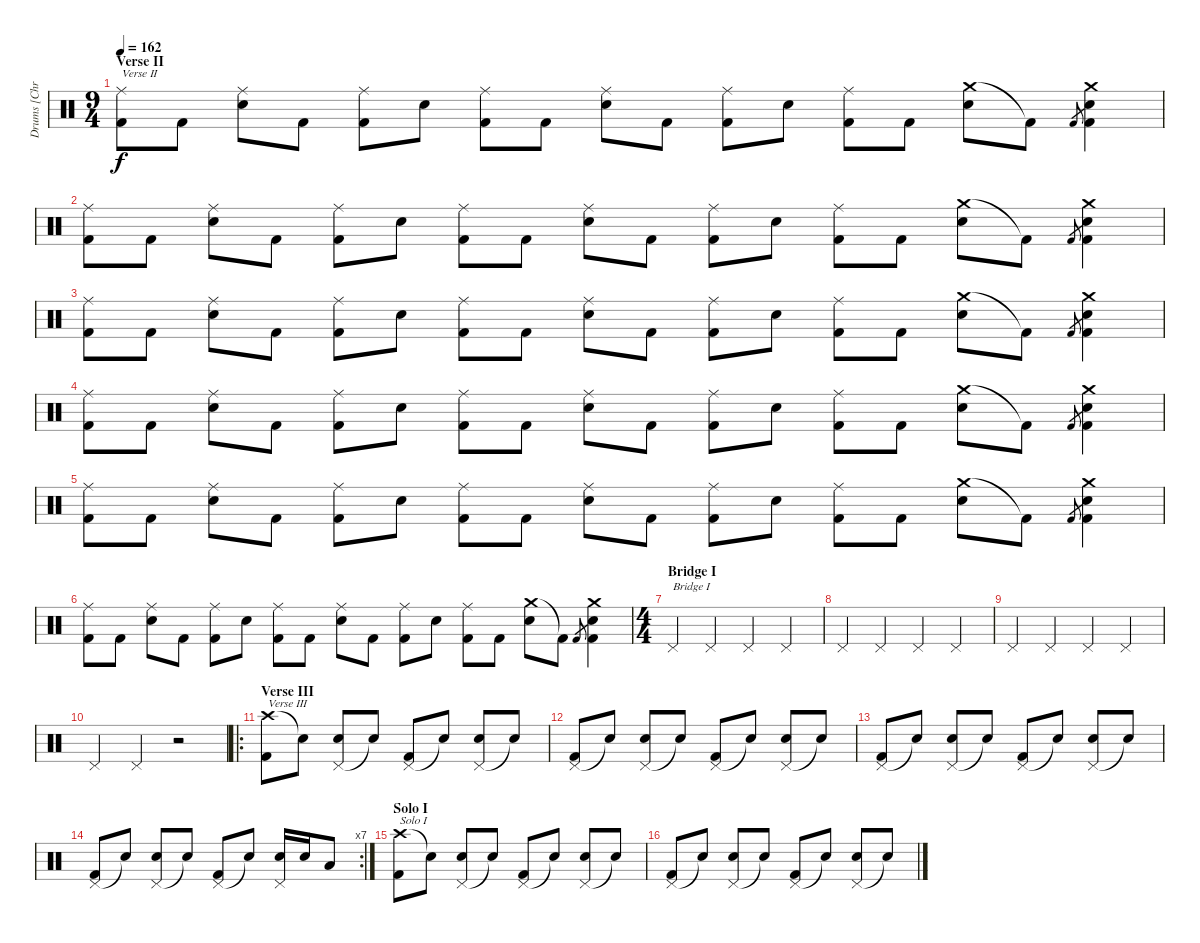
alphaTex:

\track ("Drums [Chris Maitland]" "Drums [Chr") {instrument percussion}
\staff {score}
\articulation defaults
\ts (9 4)
\section ("" "Verse II")
\tempo 162
\clef neutral
\ks c
("Ride (middle)" "Kick (hit) 2").8{txt "Verse II" dy f} "Kick (hit) 2".8 ("Ride (middle)" "Electric Snare (hit)").8 "Kick (hit) 2".8 ("Ride (middle)" "Kick (hit) 2").8 "Electric Snare (hit)".8 ("Ride (middle)" "Kick (hit) 2").8 "Kick (hit) 2".8 ("Ride (middle)" "Electric Snare (hit)").8 "Kick (hit) 2".8 ("Ride (middle)" "Kick (hit) 2").8 "Electric Snare (hit)".8 ("Ride (middle)" "Kick (hit) 2").8 "Kick (hit) 2".8 ("Crash medium (hit)" "Electric Snare (hit)").8 "Kick (hit) 2"{t}.8 "Kick (hit) 2".8{gr} ("Crash medium (hit)" "Electric Snare (hit)" "Kick (hit) 2").4 |
("Ride (middle)" "Kick (hit) 2").8 "Kick (hit) 2".8 ("Ride (middle)" "Electric Snare (hit)").8 "Kick (hit) 2".8 ("Ride (middle)" "Kick (hit) 2").8 "Electric Snare (hit)".8 ("Ride (middle)" "Kick (hit) 2").8 "Kick (hit) 2".8 ("Ride (middle)" "Electric Snare (hit)").8 "Kick (hit) 2".8 ("Ride (middle)" "Kick (hit) 2").8 "Electric Snare (hit)".8 ("Ride (middle)" "Kick (hit) 2").8 "Kick (hit) 2".8 ("Crash medium (hit)" "Electric Snare (hit)").8 "Kick (hit) 2"{t}.8 "Kick (hit) 2".8{gr} ("Crash medium (hit)" "Electric Snare (hit)" "Kick (hit) 2").4 |
("Ride (middle)" "Kick (hit) 2").8 "Kick (hit) 2".8 ("Ride (middle)" "Electric Snare (hit)").8 "Kick (hit) 2".8 ("Ride (middle)" "Kick (hit) 2").8 "Electric Snare (hit)".8 ("Ride (middle)" "Kick (hit) 2").8 "Kick (hit) 2".8 ("Ride (middle)" "Electric Snare (hit)").8 "Kick (hit) 2".8 ("Ride (middle)" "Kick (hit) 2").8 "Electric Snare (hit)".8 ("Ride (middle)" "Kick (hit) 2").8 "Kick (hit) 2".8 ("Crash medium (hit)" "Electric Snare (hit)").8 "Kick (hit) 2"{t}.8 "Kick (hit) 2".8{gr} ("Crash medium (hit)" "Electric Snare (hit)" "Kick (hit) 2").4 |
("Ride (middle)" "Kick (hit) 2").8 "Kick (hit) 2".8 ("Ride (middle)" "Electric Snare (hit)").8 "Kick (hit) 2".8 ("Ride (middle)" "Kick (hit) 2").8 "Electric Snare (hit)".8 ("Ride (middle)" "Kick (hit) 2").8 "Kick (hit) 2".8 ("Ride (middle)" "Electric Snare (hit)").8 "Kick (hit) 2".8 ("Ride (middle)" "Kick (hit) 2").8 "Electric Snare (hit)".8 ("Ride (middle)" "Kick (hit) 2").8 "Kick (hit) 2".8 ("Crash medium (hit)" "Electric Snare (hit)").8 "Kick (hit) 2"{t}.8 "Kick (hit) 2".8{gr} ("Crash medium (hit)" "Electric Snare (hit)" "Kick (hit) 2").4 |
("Ride (middle)" "Kick (hit) 2").8 "Kick (hit) 2".8 ("Ride (middle)" "Electric Snare (hit)").8 "Kick (hit) 2".8 ("Ride (middle)" "Kick (hit) 2").8 "Electric Snare (hit)".8 ("Ride (middle)" "Kick (hit) 2").8 "Kick (hit) 2".8 ("Ride (middle)" "Electric Snare (hit)").8 "Kick (hit) 2".8 ("Ride (middle)" "Kick (hit) 2").8 "Electric Snare (hit)".8 ("Ride (middle)" "Kick (hit) 2").8 "Kick (hit) 2".8 ("Crash medium (hit)" "Electric Snare (hit)").8 "Kick (hit) 2"{t}.8 "Kick (hit) 2".8{gr} ("Crash medium (hit)" "Electric Snare (hit)" "Kick (hit) 2").4 |
("Ride (middle)" "Kick (hit) 2").8 "Kick (hit) 2".8 ("Ride (middle)" "Electric Snare (hit)").8 "Kick (hit) 2".8 ("Ride (middle)" "Kick (hit) 2").8 "Electric Snare (hit)".8 ("Ride (middle)" "Kick (hit) 2").8 "Kick (hit) 2".8 ("Ride (middle)" "Electric Snare (hit)").8 "Kick (hit) 2".8 ("Ride (middle)" "Kick (hit) 2").8 "Electric Snare (hit)".8 ("Ride (middle)" "Kick (hit) 2").8 "Kick (hit) 2".8 ("Crash medium (hit)" "Electric Snare (hit)").8 "Kick (hit) 2"{t}.8 "Kick (hit) 2".8{gr} ("Crash medium (hit)" "Electric Snare (hit)" "Kick (hit) 2").4 |
\ts (4 4)
\section ("" "Bridge I")
"Pedal Hi-Hat (hit)".4{txt "Bridge I"} "Pedal Hi-Hat (hit)".4 "Pedal Hi-Hat (hit)".4 "Pedal Hi-Hat (hit)".4 |
"Pedal Hi-Hat (hit)".4 "Pedal Hi-Hat (hit)".4 "Pedal Hi-Hat (hit)".4 "Pedal Hi-Hat (hit)".4 |
"Pedal Hi-Hat (hit)".4 "Pedal Hi-Hat (hit)".4 "Pedal Hi-Hat (hit)".4 "Pedal Hi-Hat (hit)".4 |
"Pedal Hi-Hat (hit)".4 "Pedal Hi-Hat (hit)".4 r.2 |
\ro
\section ("" "Verse III")
("Crash high (hit)" "Kick (hit) 2").8{txt "Verse III"} "Snare (hit)"{t}.8 ("Pedal Hi-Hat (hit)" "Electric Snare (hit)").8 "Snare (hit)"{t}.8 ("Pedal Hi-Hat (hit)" "Kick (hit) 2").8 "Snare (hit)"{t}.8 ("Pedal Hi-Hat (hit)" "Electric Snare (hit)").8 "Snare (hit)"{t}.8 |
("Pedal Hi-Hat (hit)" "Kick (hit) 2").8 "Snare (hit)"{t}.8 ("Pedal Hi-Hat (hit)" "Electric Snare (hit)").8 "Snare (hit)"{t}.8 ("Pedal Hi-Hat (hit)" "Kick (hit) 2").8 "Snare (hit)"{t}.8 ("Pedal Hi-Hat (hit)" "Electric Snare (hit)").8 "Snare (hit)"{t}.8 |
("Pedal Hi-Hat (hit)" "Kick (hit) 2").8 "Snare (hit)"{t}.8 ("Pedal Hi-Hat (hit)" "Electric Snare (hit)").8 "Snare (hit)"{t}.8 ("Pedal Hi-Hat (hit)" "Kick (hit) 2").8 "Snare (hit)"{t}.8 ("Pedal Hi-Hat (hit)" "Electric Snare (hit)").8 "Snare (hit)"{t}.8 |
\rc 7
("Pedal Hi-Hat (hit)" "Kick (hit) 2").8 "Snare (hit)"{t}.8 ("Pedal Hi-Hat (hit)" "Electric Snare (hit)").8 "Snare (hit)"{t}.8 ("Pedal Hi-Hat (hit)" "Kick (hit) 2").8 "Snare (hit)"{t}.8 ("Pedal Hi-Hat (hit)" "Electric Snare (hit)").16 "Electric Snare (hit)".16 "Low Tom (hit)".8 |
\section ("" "Solo I")
("Crash high (hit)" "Kick (hit) 2").8{txt "Solo I"} "Snare (hit)"{t}.8 ("Pedal Hi-Hat (hit)" "Electric Snare (hit)").8 "Snare (hit)"{t}.8 ("Pedal Hi-Hat (hit)" "Kick (hit) 2").8 "Snare (hit)"{t}.8 ("Pedal Hi-Hat (hit)" "Electric Snare (hit)").8 "Snare (hit)"{t}.8 |
("Pedal Hi-Hat (hit)" "Kick (hit) 2").8 "Snare (hit)"{t}.8 ("Pedal Hi-Hat (hit)" "Electric Snare (hit)").8 "Snare (hit)"{t}.8 ("Pedal Hi-Hat (hit)" "Kick (hit) 2").8 "Snare (hit)"{t}.8 ("Pedal Hi-Hat (hit)" "Electric Snare (hit)").8 "Snare (hit)"{t}.8
